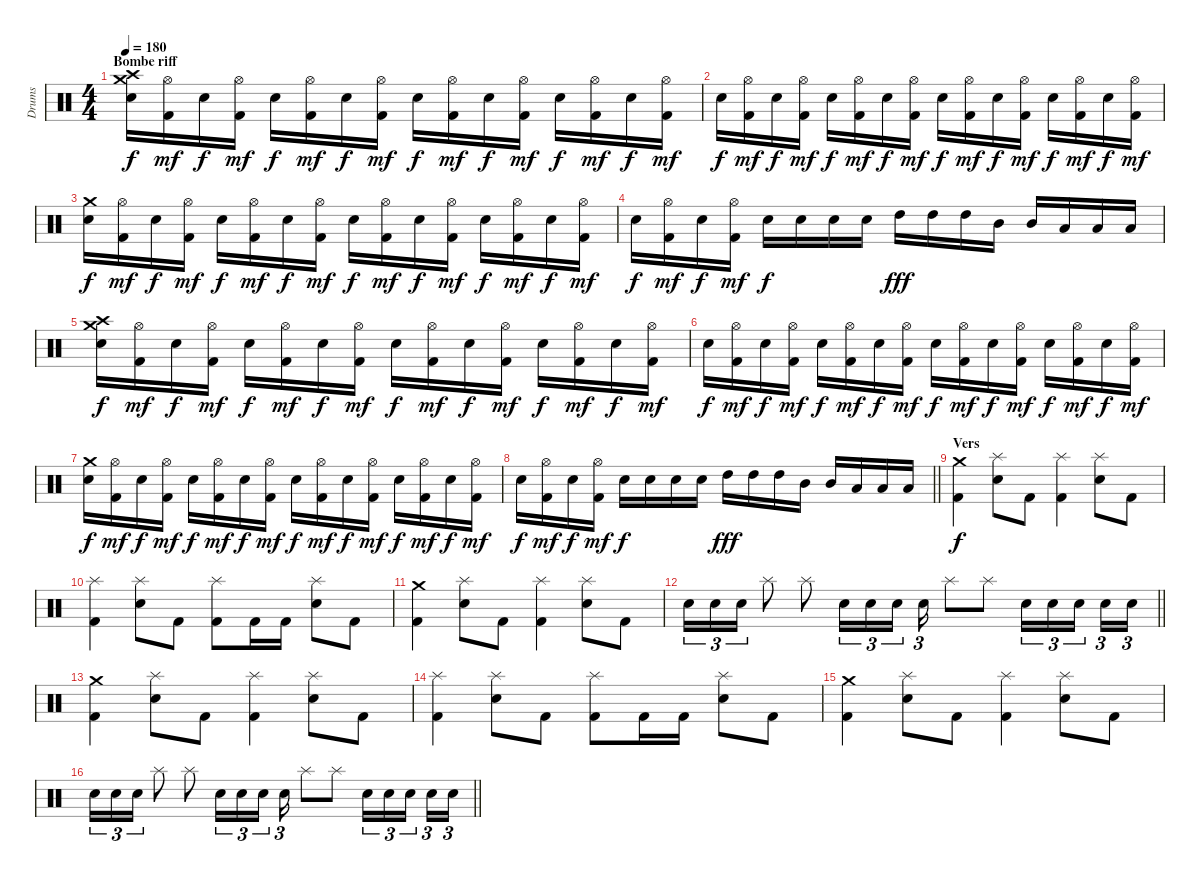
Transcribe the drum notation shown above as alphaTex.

\track ("Drums" "Drums") {instrument percussion}
\staff {score}
\articulation defaults
\ts (4 4)
\section ("" "Bombe riff")
\tempo 180
\clef neutral
\ks c
("Crash medium (hit)" "Crash high (hit)" "Snare (hit) 2").16{dy f} ("Hi-Hat (open)" "Kick (hit) 2").16{dy mf} "Snare (hit) 2".16{dy f} ("Hi-Hat (open)" "Kick (hit) 2").16{dy mf} "Snare (hit) 2".16{dy f} ("Hi-Hat (open)" "Kick (hit) 2").16{dy mf} "Snare (hit) 2".16{dy f} ("Hi-Hat (open)" "Kick (hit) 2").16{dy mf} "Snare (hit) 2".16{dy f} ("Hi-Hat (open)" "Kick (hit) 2").16{dy mf} "Snare (hit) 2".16{dy f} ("Hi-Hat (open)" "Kick (hit) 2").16{dy mf} "Snare (hit) 2".16{dy f} ("Hi-Hat (open)" "Kick (hit) 2").16{dy mf} "Snare (hit) 2".16{dy f} ("Hi-Hat (open)" "Kick (hit) 2").16{dy mf} |
"Snare (hit) 2".16{dy f} ("Hi-Hat (open)" "Kick (hit) 2").16{dy mf} "Snare (hit) 2".16{dy f} ("Hi-Hat (open)" "Kick (hit) 2").16{dy mf} "Snare (hit) 2".16{dy f} ("Hi-Hat (open)" "Kick (hit) 2").16{dy mf} "Snare (hit) 2".16{dy f} ("Hi-Hat (open)" "Kick (hit) 2").16{dy mf} "Snare (hit) 2".16{dy f} ("Hi-Hat (open)" "Kick (hit) 2").16{dy mf} "Snare (hit) 2".16{dy f} ("Hi-Hat (open)" "Kick (hit) 2").16{dy mf} "Snare (hit) 2".16{dy f} ("Hi-Hat (open)" "Kick (hit) 2").16{dy mf} "Snare (hit) 2".16{dy f} ("Hi-Hat (open)" "Kick (hit) 2").16{dy mf} |
("Crash medium (hit)" "Snare (hit) 2").16{dy f} ("Hi-Hat (open)" "Kick (hit) 2").16{dy mf} "Snare (hit) 2".16{dy f} ("Hi-Hat (open)" "Kick (hit) 2").16{dy mf} "Snare (hit) 2".16{dy f} ("Hi-Hat (open)" "Kick (hit) 2").16{dy mf} "Snare (hit) 2".16{dy f} ("Hi-Hat (open)" "Kick (hit) 2").16{dy mf} "Snare (hit) 2".16{dy f} ("Hi-Hat (open)" "Kick (hit) 2").16{dy mf} "Snare (hit) 2".16{dy f} ("Hi-Hat (open)" "Kick (hit) 2").16{dy mf} "Snare (hit) 2".16{dy f} ("Hi-Hat (open)" "Kick (hit) 2").16{dy mf} "Snare (hit) 2".16{dy f} ("Hi-Hat (open)" "Kick (hit) 2").16{dy mf} |
"Snare (hit) 2".16{dy f} ("Hi-Hat (open)" "Kick (hit) 2").16{dy mf} "Snare (hit) 2".16{dy f} ("Hi-Hat (open)" "Kick (hit) 2").16{dy mf} "Snare (hit) 2".16{dy f} "Snare (hit) 2".16 "Snare (hit) 2".16 "Snare (hit) 2".16 "High Tom (hit)".16{dy fff} "High Tom (hit)".16 "High Tom (hit)".16 "Mid Tom (hit)".16 "Mid Tom (hit)".16 "Low Tom (hit)".16 "Low Tom (hit)".16 "Low Tom (hit)".16 |
("Crash medium (hit)" "Crash high (hit)" "Snare (hit) 2").16{dy f} ("Hi-Hat (open)" "Kick (hit) 2").16{dy mf} "Snare (hit) 2".16{dy f} ("Hi-Hat (open)" "Kick (hit) 2").16{dy mf} "Snare (hit) 2".16{dy f} ("Hi-Hat (open)" "Kick (hit) 2").16{dy mf} "Snare (hit) 2".16{dy f} ("Hi-Hat (open)" "Kick (hit) 2").16{dy mf} "Snare (hit) 2".16{dy f} ("Hi-Hat (open)" "Kick (hit) 2").16{dy mf} "Snare (hit) 2".16{dy f} ("Hi-Hat (open)" "Kick (hit) 2").16{dy mf} "Snare (hit) 2".16{dy f} ("Hi-Hat (open)" "Kick (hit) 2").16{dy mf} "Snare (hit) 2".16{dy f} ("Hi-Hat (open)" "Kick (hit) 2").16{dy mf} |
"Snare (hit) 2".16{dy f} ("Hi-Hat (open)" "Kick (hit) 2").16{dy mf} "Snare (hit) 2".16{dy f} ("Hi-Hat (open)" "Kick (hit) 2").16{dy mf} "Snare (hit) 2".16{dy f} ("Hi-Hat (open)" "Kick (hit) 2").16{dy mf} "Snare (hit) 2".16{dy f} ("Hi-Hat (open)" "Kick (hit) 2").16{dy mf} "Snare (hit) 2".16{dy f} ("Hi-Hat (open)" "Kick (hit) 2").16{dy mf} "Snare (hit) 2".16{dy f} ("Hi-Hat (open)" "Kick (hit) 2").16{dy mf} "Snare (hit) 2".16{dy f} ("Hi-Hat (open)" "Kick (hit) 2").16{dy mf} "Snare (hit) 2".16{dy f} ("Hi-Hat (open)" "Kick (hit) 2").16{dy mf} |
("Crash medium (hit)" "Snare (hit) 2").16{dy f} ("Hi-Hat (open)" "Kick (hit) 2").16{dy mf} "Snare (hit) 2".16{dy f} ("Hi-Hat (open)" "Kick (hit) 2").16{dy mf} "Snare (hit) 2".16{dy f} ("Hi-Hat (open)" "Kick (hit) 2").16{dy mf} "Snare (hit) 2".16{dy f} ("Hi-Hat (open)" "Kick (hit) 2").16{dy mf} "Snare (hit) 2".16{dy f} ("Hi-Hat (open)" "Kick (hit) 2").16{dy mf} "Snare (hit) 2".16{dy f} ("Hi-Hat (open)" "Kick (hit) 2").16{dy mf} "Snare (hit) 2".16{dy f} ("Hi-Hat (open)" "Kick (hit) 2").16{dy mf} "Snare (hit) 2".16{dy f} ("Hi-Hat (open)" "Kick (hit) 2").16{dy mf} |
\barLineRight lightlight "Snare (hit) 2".16{dy f}
("Hi-Hat (open)" "Kick (hit) 2").16{dy mf} "Snare (hit) 2".16{dy f} ("Hi-Hat (open)" "Kick (hit) 2").16{dy mf} "Snare (hit) 2".16{dy f} "Snare (hit) 2".16 "Snare (hit) 2".16 "Snare (hit) 2".16 "High Tom (hit)".16{dy fff} "High Tom (hit)".16 "High Tom (hit)".16 "Mid Tom (hit)".16 "Mid Tom (hit)".16 "Low Tom (hit)".16 "Low Tom (hit)".16 "Low Tom (hit)".16 |
\section ("" "Vers")
("Crash medium (hit)" "Kick (hit) 2").4{dy f} ("Splash (hit)" "Snare (hit) 2").8 "Kick (hit) 2".8 ("Splash (hit)" "Kick (hit) 2").4 ("Splash (hit)" "Snare (hit) 2").8 "Kick (hit) 2".8 |
("Splash (hit)" "Kick (hit) 2").4 ("Splash (hit)" "Snare (hit) 2").8 "Kick (hit) 2".8 ("Splash (hit)" "Kick (hit) 2").8 "Kick (hit) 2".16 "Kick (hit) 2".16 ("Splash (hit)" "Snare (hit) 2").8 "Kick (hit) 2".8 |
("Crash medium (hit)" "Kick (hit) 2").4 ("Splash (hit)" "Snare (hit) 2").8 "Kick (hit) 2".8 ("Splash (hit)" "Kick (hit) 2").4 ("Splash (hit)" "Snare (hit) 2").8 "Kick (hit) 2".8 |
\barLineRight lightlight "Snare (hit) 2".16{tu (3 2)} "Snare (hit) 2".16{tu (3 2)} "Snare (hit) 2".16{tu (3 2)} "Splash (hit)".8 "Splash (hit)".8 "Snare (hit) 2".16{tu (3 2)} "Snare (hit) 2".16{tu (3 2)} "Snare (hit) 2".16{tu (3 2)} "Snare (hit) 2".16{tu (3 2)} "Splash (hit)".8 "Splash (hit)".8 "Snare (hit) 2".16{tu (3 2)} "Snare (hit) 2".16{tu (3 2)} "Snare (hit) 2".16{tu (3 2) beam splitsecondary} "Snare (hit) 2".16{tu (3 2)} "Snare (hit) 2".16{tu (3 2)}
|
("Crash medium (hit)" "Kick (hit) 2").4 ("Splash (hit)" "Snare (hit) 2").8 "Kick (hit) 2".8 ("Splash (hit)" "Kick (hit) 2").4 ("Splash (hit)" "Snare (hit) 2").8 "Kick (hit) 2".8 |
("Splash (hit)" "Kick (hit) 2").4 ("Splash (hit)" "Snare (hit) 2").8 "Kick (hit) 2".8 ("Splash (hit)" "Kick (hit) 2").8 "Kick (hit) 2".16 "Kick (hit) 2".16 ("Splash (hit)" "Snare (hit) 2").8 "Kick (hit) 2".8 |
("Crash medium (hit)" "Kick (hit) 2").4 ("Splash (hit)" "Snare (hit) 2").8 "Kick (hit) 2".8 ("Splash (hit)" "Kick (hit) 2").4 ("Splash (hit)" "Snare (hit) 2").8 "Kick (hit) 2".8 |
\barLineRight lightlight "Snare (hit) 2".16{tu (3 2)} "Snare (hit) 2".16{tu (3 2)} "Snare (hit) 2".16{tu (3 2)} "Splash (hit)".8 "Splash (hit)".8 "Snare (hit) 2".16{tu (3 2)} "Snare (hit) 2".16{tu (3 2)} "Snare (hit) 2".16{tu (3 2)} "Snare (hit) 2".16{tu (3 2)} "Splash (hit)".8 "Splash (hit)".8 "Snare (hit) 2".16{tu (3 2)} "Snare (hit) 2".16{tu (3 2)} "Snare (hit) 2".16{tu (3 2) beam splitsecondary} "Snare (hit) 2".16{tu (3 2)} "Snare (hit) 2".16{tu (3 2)}
